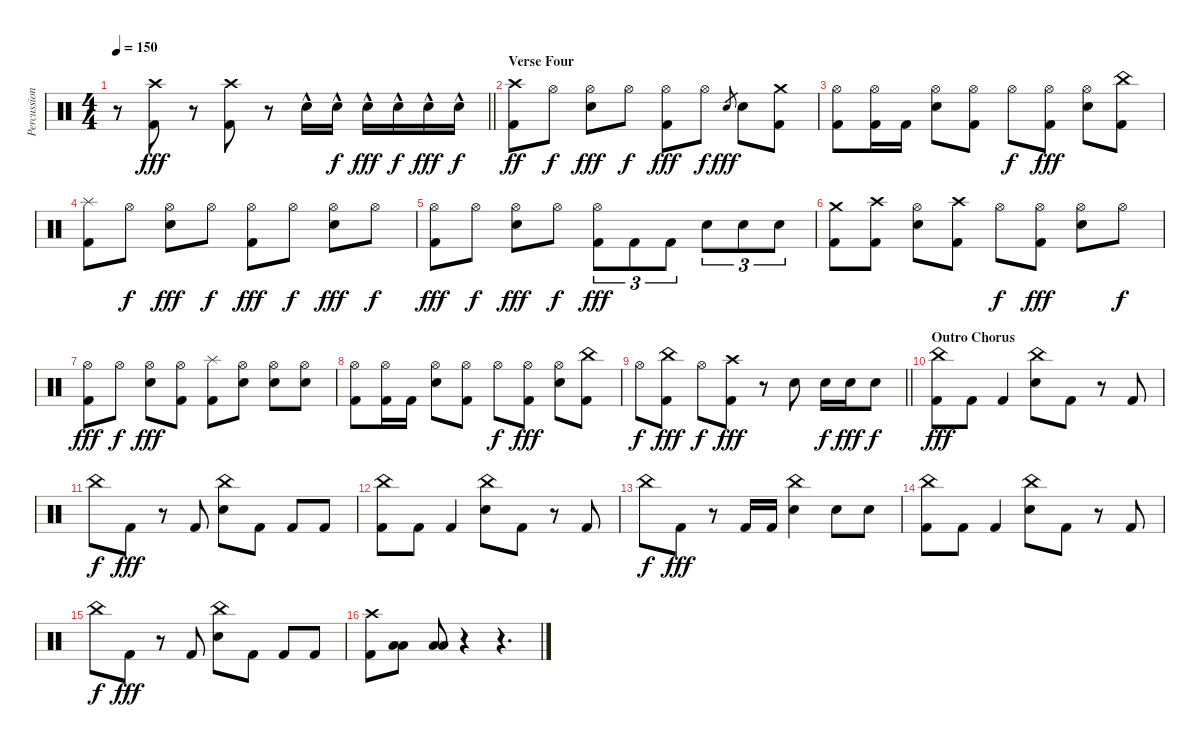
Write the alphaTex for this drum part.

\track ("Percussion" "Percussion") {instrument percussion}
\staff {score}
\articulation defaults
\ts (4 4)
\tempo 150
\clef neutral
\barLineRight lightlight
\ks c
r.8{dy fff} ("Kick (hit) 2" "Crash high (hit)").8 r.8 ("Kick (hit) 2" "Crash high (hit)").8 r.8 "Electric Snare (hit)"{hac}.16 "Electric Snare (hit)"{hac}.16{dy f} "Electric Snare (hit)"{hac}.16{dy fff} "Electric Snare (hit)"{hac}.16{dy f} "Electric Snare (hit)"{hac}.16{dy fff} "Electric Snare (hit)"{hac}.16{dy f} |
\section ("" "Verse Four")
("Kick (hit) 2" "Crash high (hit)").8{dy ff} "Hi-Hat (open)".8{dy f} ("Hi-Hat (open)" "Snare (hit) 2").8{dy fff} "Hi-Hat (open)".8{dy f} ("Hi-Hat (open)" "Kick (hit) 2").8{dy fff} "Hi-Hat (open)".8{dy f} "Snare (hit) 2".8{gr dy fff} "Snare (hit) 2".8 ("Kick (hit) 2" "Crash medium (hit)").8 |
("Hi-Hat (open)" "Kick (hit) 2").8 ("Hi-Hat (open)" "Kick (hit) 2").16 "Kick (hit) 2".16 ("Hi-Hat (open)" "Snare (hit) 2").8 ("Hi-Hat (open)" "Kick (hit) 2").8 "Hi-Hat (open)".8{dy f} ("Hi-Hat (open)" "Kick (hit) 2").8{dy fff} ("Hi-Hat (open)" "Snare (hit) 2").8 ("China (hit)" "Kick (hit) 2").8 |
("Kick (hit) 2" "Splash (hit)").8 "Hi-Hat (open)".8{dy f} ("Hi-Hat (open)" "Snare (hit) 2").8{dy fff} "Hi-Hat (open)".8{dy f} ("Hi-Hat (open)" "Kick (hit) 2").8{dy fff} "Hi-Hat (open)".8{dy f} ("Hi-Hat (open)" "Snare (hit) 2").8{dy fff} "Hi-Hat (open)".8{dy f} |
("Hi-Hat (open)" "Kick (hit) 2").8{dy fff} "Hi-Hat (open)".8{dy f} ("Snare (hit) 2" "Hi-Hat (open)").8{dy fff} "Hi-Hat (open)".8{dy f} ("Hi-Hat (open)" "Kick (hit) 2").8{tu (3 2) dy fff} "Kick (hit) 2".8{tu (3 2)} "Kick (hit) 2".8{tu (3 2)} "Snare (hit) 2".8{tu (3 2)} "Snare (hit) 2".8{tu (3 2)} "Snare (hit) 2".8{tu (3 2)} |
("Kick (hit) 2" "Crash medium (hit)").8 ("Kick (hit) 2" "Crash high (hit)").8 ("Hi-Hat (open)" "Snare (hit) 2").8 ("Crash high (hit)" "Kick (hit) 2").8 "Hi-Hat (open)".8{dy f} ("Hi-Hat (open)" "Kick (hit) 2").8{dy fff} ("Hi-Hat (open)" "Snare (hit) 2").8 "Hi-Hat (open)".8{dy f} |
("Hi-Hat (open)" "Kick (hit) 2").8{dy fff} "Hi-Hat (open)".8{dy f} ("Snare (hit) 2" "Hi-Hat (open)").8{dy fff} ("Hi-Hat (open)" "Kick (hit) 2").8 ("Splash (hit)" "Kick (hit) 2").8 ("Hi-Hat (open)" "Snare (hit) 2").8 ("Hi-Hat (open)" "Snare (hit) 2").8 ("Hi-Hat (open)" "Snare (hit) 2").8 |
("Hi-Hat (open)" "Kick (hit) 2").8 ("Hi-Hat (open)" "Kick (hit) 2").16 "Kick (hit) 2".16 ("Hi-Hat (open)" "Snare (hit) 2").8 ("Hi-Hat (open)" "Kick (hit) 2").8 "Hi-Hat (open)".8{dy f} ("Hi-Hat (open)" "Kick (hit) 2").8{dy fff} ("Hi-Hat (open)" "Snare (hit) 2").8 ("China (hit)" "Kick (hit) 2").8 |
\barLineRight lightlight "Hi-Hat (open)".8{dy f}
("China (hit)" "Kick (hit) 2").8{dy fff} "Hi-Hat (open)".8{dy f} ("Kick (hit) 2" "Crash high (hit)").8{dy fff} r.8 "Snare (hit) 2".8 "Snare (hit) 2".16{dy f} "Snare (hit) 2".16{dy fff} "Snare (hit) 2".8{dy f} |
\section ("" "Outro Chorus")
("China (hit)" "Kick (hit) 2").8{dy fff} "Kick (hit) 2".8 "Kick (hit) 2".4 ("China (hit)" "Snare (hit) 2").8 "Kick (hit) 2".8 r.8 "Kick (hit) 2".8 |
"China (hit)".8{dy f} "Kick (hit) 2".8{dy fff} r.8 "Kick (hit) 2".8 ("China (hit)" "Snare (hit) 2").8 "Kick (hit) 2".8 "Kick (hit) 2".8 "Kick (hit) 2".8 |
("China (hit)" "Kick (hit) 2").8 "Kick (hit) 2".8 "Kick (hit) 2".4 ("China (hit)" "Snare (hit) 2").8 "Kick (hit) 2".8 r.8 "Kick (hit) 2".8 |
"China (hit)".8{dy f} "Kick (hit) 2".8{dy fff} r.8 "Kick (hit) 2".16 "Kick (hit) 2".16 ("Snare (hit) 2" "China (hit)").4 "Snare (hit) 2".8 "Snare (hit) 2".8 |
("China (hit)" "Kick (hit) 2").8 "Kick (hit) 2".8 "Kick (hit) 2".4 ("China (hit)" "Snare (hit) 2").8 "Kick (hit) 2".8 r.8 "Kick (hit) 2".8 |
"China (hit)".8{dy f} "Kick (hit) 2".8{dy fff} r.8 "Kick (hit) 2".8 ("China (hit)" "Snare (hit) 2").8 "Kick (hit) 2".8 "Kick (hit) 2".8 "Kick (hit) 2".8 |
("Kick (hit) 2" "Crash high (hit)").8 ("Low Tom (hit)" "Low Floor Tom (hit)").8 ("Low Tom (hit)" "Low Floor Tom (hit)").8 r.4 r.4{d}
